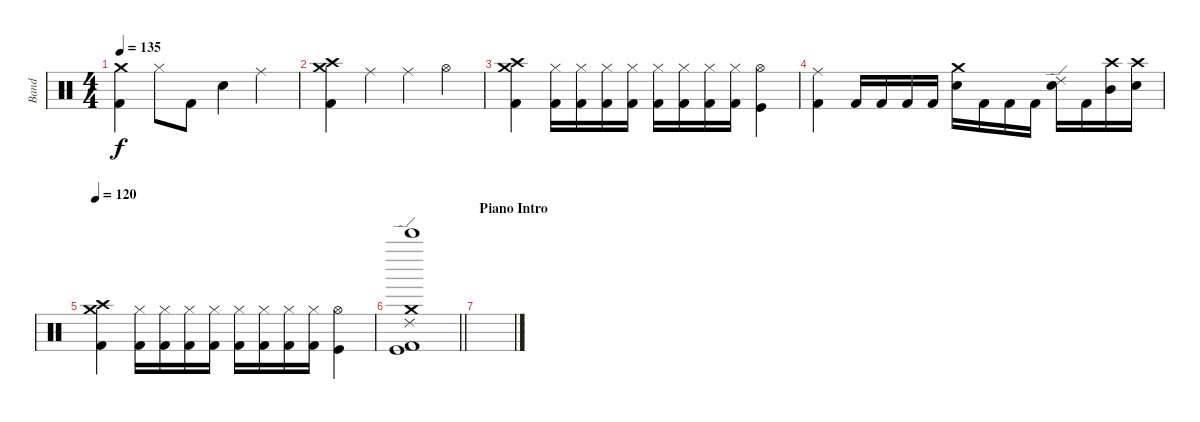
\track ("Band" "Band") {instrument percussion}
\staff {score}
\articulation defaults
\ts (4 4)
\tempo 135
\clef neutral
\ks c
("Crash medium (hit)" "Kick (hit) 2").4{dy f} "Hi-Hat (closed)".8 "Kick (hit) 2".8 "Electric Snare (hit)".4 "Ride (middle)".4 |
("Crash medium (hit)" "Crash high (hit)" "Kick (hit) 2").4 "Ride (middle)".4 "Ride (middle)".4 "Hi-Hat (open)".4 |
("Crash medium (hit)" "Crash high (hit)" "Kick (hit) 2").4 ("Hi-Hat (closed)" "Kick (hit) 2").16 ("Hi-Hat (closed)" "Kick (hit) 2").16 ("Hi-Hat (closed)" "Kick (hit) 2").16 ("Hi-Hat (closed)" "Kick (hit) 2").16 ("Hi-Hat (closed)" "Kick (hit) 2").16 ("Hi-Hat (closed)" "Kick (hit) 2").16 ("Hi-Hat (closed)" "Kick (hit) 2").16 ("Hi-Hat (closed)" "Kick (hit) 2").16 ("Hi-Hat (open)" "Kick (hit)").4 |
("Ride (middle)" "Kick (hit) 2").4 "Kick (hit) 2".16 "Kick (hit) 2".16 "Kick (hit) 2".16 "Kick (hit) 2".16 ("Crash medium (hit)" "Electric Snare (hit)").16 "Kick (hit) 2".16 "Kick (hit) 2".16 "Kick (hit) 2".16 ("Ride (edge) 2" "Electric Snare (hit)").16 "Kick (hit) 2".16 ("Crash high (hit)" "Mid Tom (hit)").16 ("Crash high (hit)" "Electric Snare (hit)").16 |
\tempo 120
("Crash medium (hit)" "Crash high (hit)" "Kick (hit) 2").4 ("Hi-Hat (closed)" "Kick (hit) 2").16 ("Hi-Hat (closed)" "Kick (hit) 2").16 ("Hi-Hat (closed)" "Kick (hit) 2").16 ("Hi-Hat (closed)" "Kick (hit) 2").16 ("Hi-Hat (closed)" "Kick (hit) 2").16 ("Hi-Hat (closed)" "Kick (hit) 2").16 ("Hi-Hat (closed)" "Kick (hit) 2").16 ("Hi-Hat (closed)" "Kick (hit) 2").16 ("Hi-Hat (open)" "Kick (hit)").4 |
\barLineRight lightlight
("Ride (edge) 2" "Bell Tree (hit)" "Crash medium (hit)" "Kick (hit)" "Kick (hit) 2").1 |
\section ("" "Piano Intro")
